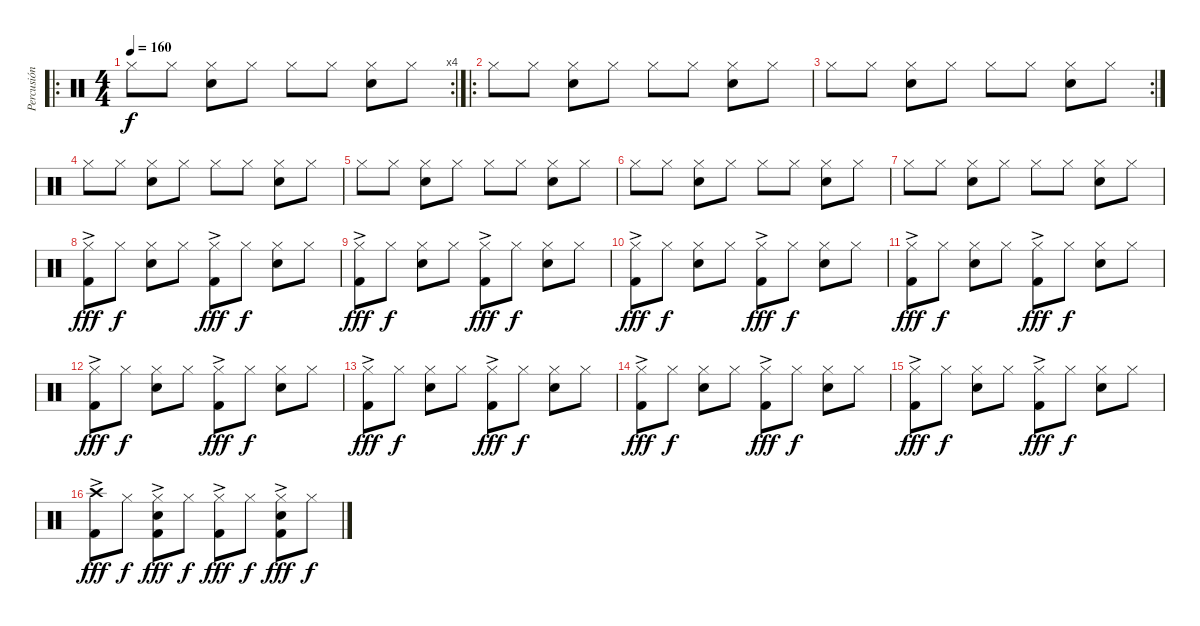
\track ("Percusión" "Percusión") {instrument percussion}
\staff {score}
\articulation defaults
\ro
\rc 4
\ts (4 4)
\tempo 160
\clef neutral
\ks c "Hi-Hat (closed)".8{dy f} "Hi-Hat (closed)".8
("Hi-Hat (closed)" "Electric Snare (hit)").8 "Hi-Hat (closed)".8 "Hi-Hat (closed)".8 "Hi-Hat (closed)".8 ("Hi-Hat (closed)" "Electric Snare (hit)").8 "Hi-Hat (closed)".8 |
\ro "Hi-Hat (closed)".8 "Hi-Hat (closed)".8
("Hi-Hat (closed)" "Electric Snare (hit)").8 "Hi-Hat (closed)".8 "Hi-Hat (closed)".8 "Hi-Hat (closed)".8 ("Hi-Hat (closed)" "Electric Snare (hit)").8 "Hi-Hat (closed)".8 |
\rc 2 "Hi-Hat (closed)".8 "Hi-Hat (closed)".8
("Hi-Hat (closed)" "Electric Snare (hit)").8 "Hi-Hat (closed)".8 "Hi-Hat (closed)".8 "Hi-Hat (closed)".8 ("Hi-Hat (closed)" "Electric Snare (hit)").8 "Hi-Hat (closed)".8 |
"Hi-Hat (closed)".8 "Hi-Hat (closed)".8 ("Hi-Hat (closed)" "Electric Snare (hit)").8 "Hi-Hat (closed)".8 "Hi-Hat (closed)".8 "Hi-Hat (closed)".8 ("Hi-Hat (closed)" "Electric Snare (hit)").8 "Hi-Hat (closed)".8 |
"Hi-Hat (closed)".8 "Hi-Hat (closed)".8 ("Hi-Hat (closed)" "Electric Snare (hit)").8 "Hi-Hat (closed)".8 "Hi-Hat (closed)".8 "Hi-Hat (closed)".8 ("Hi-Hat (closed)" "Electric Snare (hit)").8 "Hi-Hat (closed)".8 |
"Hi-Hat (closed)".8 "Hi-Hat (closed)".8 ("Hi-Hat (closed)" "Electric Snare (hit)").8 "Hi-Hat (closed)".8 "Hi-Hat (closed)".8 "Hi-Hat (closed)".8 ("Hi-Hat (closed)" "Electric Snare (hit)").8 "Hi-Hat (closed)".8 |
"Hi-Hat (closed)".8 "Hi-Hat (closed)".8 ("Hi-Hat (closed)" "Electric Snare (hit)").8 "Hi-Hat (closed)".8 "Hi-Hat (closed)".8 "Hi-Hat (closed)".8 ("Hi-Hat (closed)" "Electric Snare (hit)").8 "Hi-Hat (closed)".8 |
("Hi-Hat (closed)" "Kick (hit) 2"{ac}).8{dy fff} "Hi-Hat (closed)".8{dy f} ("Hi-Hat (closed)" "Electric Snare (hit)").8 "Hi-Hat (closed)".8 ("Hi-Hat (closed)" "Kick (hit) 2"{ac}).8{dy fff} "Hi-Hat (closed)".8{dy f} ("Hi-Hat (closed)" "Electric Snare (hit)").8 "Hi-Hat (closed)".8 |
("Hi-Hat (closed)" "Kick (hit) 2"{ac}).8{dy fff} "Hi-Hat (closed)".8{dy f} ("Hi-Hat (closed)" "Electric Snare (hit)").8 "Hi-Hat (closed)".8 ("Hi-Hat (closed)" "Kick (hit) 2"{ac}).8{dy fff} "Hi-Hat (closed)".8{dy f} ("Hi-Hat (closed)" "Electric Snare (hit)").8 "Hi-Hat (closed)".8 |
("Hi-Hat (closed)" "Kick (hit) 2"{ac}).8{dy fff} "Hi-Hat (closed)".8{dy f} ("Hi-Hat (closed)" "Electric Snare (hit)").8 "Hi-Hat (closed)".8 ("Hi-Hat (closed)" "Kick (hit) 2"{ac}).8{dy fff} "Hi-Hat (closed)".8{dy f} ("Hi-Hat (closed)" "Electric Snare (hit)").8 "Hi-Hat (closed)".8 |
("Hi-Hat (closed)" "Kick (hit) 2"{ac}).8{dy fff} "Hi-Hat (closed)".8{dy f} ("Hi-Hat (closed)" "Electric Snare (hit)").8 "Hi-Hat (closed)".8 ("Hi-Hat (closed)" "Kick (hit) 2"{ac}).8{dy fff} "Hi-Hat (closed)".8{dy f} ("Hi-Hat (closed)" "Electric Snare (hit)").8 "Hi-Hat (closed)".8 |
("Hi-Hat (closed)" "Kick (hit) 2"{ac}).8{dy fff} "Hi-Hat (closed)".8{dy f} ("Hi-Hat (closed)" "Electric Snare (hit)").8 "Hi-Hat (closed)".8 ("Hi-Hat (closed)" "Kick (hit) 2"{ac}).8{dy fff} "Hi-Hat (closed)".8{dy f} ("Hi-Hat (closed)" "Electric Snare (hit)").8 "Hi-Hat (closed)".8 |
("Hi-Hat (closed)" "Kick (hit) 2"{ac}).8{dy fff} "Hi-Hat (closed)".8{dy f} ("Hi-Hat (closed)" "Electric Snare (hit)").8 "Hi-Hat (closed)".8 ("Hi-Hat (closed)" "Kick (hit) 2"{ac}).8{dy fff} "Hi-Hat (closed)".8{dy f} ("Hi-Hat (closed)" "Electric Snare (hit)").8 "Hi-Hat (closed)".8 |
("Hi-Hat (closed)" "Kick (hit) 2"{ac}).8{dy fff} "Hi-Hat (closed)".8{dy f} ("Hi-Hat (closed)" "Electric Snare (hit)").8 "Hi-Hat (closed)".8 ("Hi-Hat (closed)" "Kick (hit) 2"{ac}).8{dy fff} "Hi-Hat (closed)".8{dy f} ("Hi-Hat (closed)" "Electric Snare (hit)").8 "Hi-Hat (closed)".8 |
("Hi-Hat (closed)" "Kick (hit) 2"{ac}).8{dy fff} "Hi-Hat (closed)".8{dy f} ("Hi-Hat (closed)" "Electric Snare (hit)").8 "Hi-Hat (closed)".8 ("Hi-Hat (closed)" "Kick (hit) 2"{ac}).8{dy fff} "Hi-Hat (closed)".8{dy f} ("Hi-Hat (closed)" "Electric Snare (hit)").8 "Hi-Hat (closed)".8 |
("Crash high (hit)" "Kick (hit) 2"{ac}).8{dy fff} "Hi-Hat (closed)".8{dy f} ("Hi-Hat (closed)" "Electric Snare (hit)" "Kick (hit) 2"{ac}).8{dy fff} "Hi-Hat (closed)".8{dy f} ("Hi-Hat (closed)" "Kick (hit) 2"{ac}).8{dy fff} "Hi-Hat (closed)".8{dy f} ("Hi-Hat (closed)" "Electric Snare (hit)" "Kick (hit) 2"{ac}).8{dy fff} "Hi-Hat (closed)".8{dy f}
